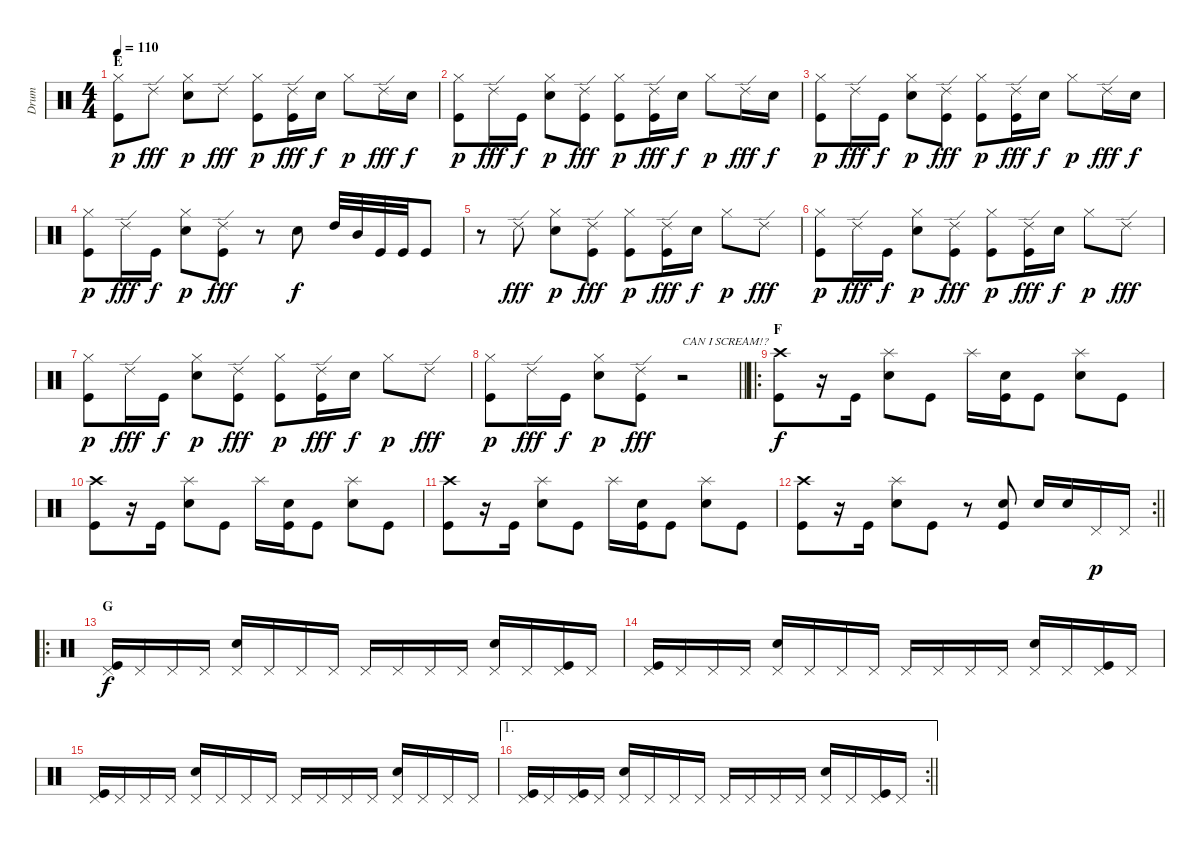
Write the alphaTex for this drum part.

\track ("Drum" "Drum") {instrument percussion}
\staff {score}
\articulation defaults
\ts (4 4)
\section ("" "E")
\tempo 110
\clef neutral
\ks c
("Hi-Hat (closed)" "Kick (hit)").8{dy p} "Ride (edge) 2".8{dy fff} ("Hi-Hat (closed)" "Snare (hit) 2").8{dy p} "Ride (edge) 2".8{dy fff} ("Hi-Hat (closed)" "Kick (hit)").8{dy p} ("Ride (edge) 2" "Kick (hit)").16{dy fff} "Snare (hit) 2".16{dy f} "Hi-Hat (closed)".8{dy p} "Ride (edge) 2".16{dy fff} "Snare (hit) 2".16{dy f} |
("Hi-Hat (closed)" "Kick (hit)").8{dy p} "Ride (edge) 2".16{dy fff} "Kick (hit)".16{dy f} ("Hi-Hat (closed)" "Snare (hit) 2").8{dy p} ("Ride (edge) 2" "Kick (hit)").8{dy fff} ("Hi-Hat (closed)" "Kick (hit)").8{dy p} ("Ride (edge) 2" "Kick (hit)").16{dy fff} "Snare (hit) 2".16{dy f} "Hi-Hat (closed)".8{dy p} "Ride (edge) 2".16{dy fff} "Snare (hit) 2".16{dy f} |
("Hi-Hat (closed)" "Kick (hit)").8{dy p} "Ride (edge) 2".16{dy fff} "Kick (hit)".16{dy f} ("Hi-Hat (closed)" "Snare (hit) 2").8{dy p} ("Ride (edge) 2" "Kick (hit)").8{dy fff} ("Hi-Hat (closed)" "Kick (hit)").8{dy p} ("Ride (edge) 2" "Kick (hit)").16{dy fff} "Snare (hit) 2".16{dy f} "Hi-Hat (closed)".8{dy p} "Ride (edge) 2".16{dy fff} "Snare (hit) 2".16{dy f} |
("Hi-Hat (closed)" "Kick (hit)").8{dy p} "Ride (edge) 2".16{dy fff} "Kick (hit)".16{dy f} ("Hi-Hat (closed)" "Snare (hit) 2").8{dy p} ("Ride (edge) 2" "Kick (hit)").8{dy fff} r.8 "Snare (hit) 2".8{dy f} "High Tom (hit)".32 "Mid Tom (hit)".32 "Kick (hit)".32 "Kick (hit)".32 "Kick (hit)".8 |
r.8 "Ride (edge) 2".8{dy fff} ("Hi-Hat (closed)" "Snare (hit) 2").8{dy p} ("Ride (edge) 2" "Kick (hit)").8{dy fff} ("Hi-Hat (closed)" "Kick (hit)").8{dy p} ("Ride (edge) 2" "Kick (hit)").16{dy fff} "Snare (hit) 2".16{dy f} "Hi-Hat (closed)".8{dy p} "Ride (edge) 2".8{dy fff} |
("Hi-Hat (closed)" "Kick (hit)").8{dy p} "Ride (edge) 2".16{dy fff} "Kick (hit)".16{dy f} ("Hi-Hat (closed)" "Snare (hit) 2").8{dy p} ("Ride (edge) 2" "Kick (hit)").8{dy fff} ("Hi-Hat (closed)" "Kick (hit)").8{dy p} ("Ride (edge) 2" "Kick (hit)").16{dy fff} "Snare (hit) 2".16{dy f} "Hi-Hat (closed)".8{dy p} "Ride (edge) 2".8{dy fff} |
("Hi-Hat (closed)" "Kick (hit)").8{dy p} "Ride (edge) 2".16{dy fff} "Kick (hit)".16{dy f} ("Hi-Hat (closed)" "Snare (hit) 2").8{dy p} ("Ride (edge) 2" "Kick (hit)").8{dy fff} ("Hi-Hat (closed)" "Kick (hit)").8{dy p} ("Ride (edge) 2" "Kick (hit)").16{dy fff} "Snare (hit) 2".16{dy f} "Hi-Hat (closed)".8{dy p} "Ride (edge) 2".8{dy fff} |
\barLineRight lightlight
("Hi-Hat (closed)" "Kick (hit)").8{dy p} "Ride (edge) 2".16{dy fff} "Kick (hit)".16{dy f} ("Hi-Hat (closed)" "Snare (hit) 2").8{dy p} ("Ride (edge) 2" "Kick (hit)").8{dy fff} r.2{txt "CAN I SCREAM!?"} |
\ro
\section ("" "F")
("Crash high (hit)" "Kick (hit)").8{dy f} r.16 "Kick (hit)".16 ("Splash (hit)" "Snare (hit) 2").8 "Kick (hit)".8 "Splash (hit)".16 ("Snare (hit) 2" "Kick (hit)").16 "Kick (hit)".8 ("Splash (hit)" "Snare (hit) 2").8 "Kick (hit)".8 |
("Crash high (hit)" "Kick (hit)").8 r.16 "Kick (hit)".16 ("Splash (hit)" "Snare (hit) 2").8 "Kick (hit)".8 "Splash (hit)".16 ("Snare (hit) 2" "Kick (hit)").16 "Kick (hit)".8 ("Splash (hit)" "Snare (hit) 2").8 "Kick (hit)".8 |
("Crash high (hit)" "Kick (hit)").8 r.16 "Kick (hit)".16 ("Splash (hit)" "Snare (hit) 2").8 "Kick (hit)".8 "Splash (hit)".16 ("Snare (hit) 2" "Kick (hit)").16 "Kick (hit)".8 ("Splash (hit)" "Snare (hit) 2").8 "Kick (hit)".8 |
\rc 2
\barLineRight lightlight
("Crash high (hit)" "Kick (hit)").8 r.16 "Kick (hit)".16 ("Splash (hit)" "Snare (hit) 2").8 "Kick (hit)".8 r.8 ("Snare (hit) 2" "Kick (hit)").8 "Snare (hit) 2".16 "Snare (hit) 2".16 "Pedal Hi-Hat (hit)".16{dy p} "Pedal Hi-Hat (hit)".16 |
\ro
\section ("" "G")
("Pedal Hi-Hat (hit)" "Kick (hit)").16{dy f} "Pedal Hi-Hat (hit)".16 "Pedal Hi-Hat (hit)".16 "Pedal Hi-Hat (hit)".16 ("Pedal Hi-Hat (hit)" "Snare (hit) 2").16 "Pedal Hi-Hat (hit)".16 "Pedal Hi-Hat (hit)".16 "Pedal Hi-Hat (hit)".16 "Pedal Hi-Hat (hit)".16 "Pedal Hi-Hat (hit)".16 "Pedal Hi-Hat (hit)".16 "Pedal Hi-Hat (hit)".16 ("Pedal Hi-Hat (hit)" "Snare (hit) 2").16 "Pedal Hi-Hat (hit)".16 ("Pedal Hi-Hat (hit)" "Kick (hit)").16 "Pedal Hi-Hat (hit)".16 |
("Pedal Hi-Hat (hit)" "Kick (hit)").16 "Pedal Hi-Hat (hit)".16 "Pedal Hi-Hat (hit)".16 "Pedal Hi-Hat (hit)".16 ("Pedal Hi-Hat (hit)" "Snare (hit) 2").16 "Pedal Hi-Hat (hit)".16 "Pedal Hi-Hat (hit)".16 "Pedal Hi-Hat (hit)".16 "Pedal Hi-Hat (hit)".16 "Pedal Hi-Hat (hit)".16 "Pedal Hi-Hat (hit)".16 "Pedal Hi-Hat (hit)".16 ("Pedal Hi-Hat (hit)" "Snare (hit) 2").16 "Pedal Hi-Hat (hit)".16 ("Pedal Hi-Hat (hit)" "Kick (hit)").16 "Pedal Hi-Hat (hit)".16 |
("Pedal Hi-Hat (hit)" "Kick (hit)").16 "Pedal Hi-Hat (hit)".16 "Pedal Hi-Hat (hit)".16 "Pedal Hi-Hat (hit)".16 ("Pedal Hi-Hat (hit)" "Snare (hit) 2").16 "Pedal Hi-Hat (hit)".16 "Pedal Hi-Hat (hit)".16 "Pedal Hi-Hat (hit)".16 "Pedal Hi-Hat (hit)".16 "Pedal Hi-Hat (hit)".16 "Pedal Hi-Hat (hit)".16 "Pedal Hi-Hat (hit)".16 ("Pedal Hi-Hat (hit)" "Snare (hit) 2").16 "Pedal Hi-Hat (hit)".16 "Pedal Hi-Hat (hit)".16 "Pedal Hi-Hat (hit)".16 |
\ae 1
\rc 2
\barLineRight lightlight
("Pedal Hi-Hat (hit)" "Kick (hit)").16 "Pedal Hi-Hat (hit)".16 ("Pedal Hi-Hat (hit)" "Kick (hit)").16 "Pedal Hi-Hat (hit)".16 ("Pedal Hi-Hat (hit)" "Snare (hit) 2").16 "Pedal Hi-Hat (hit)".16 "Pedal Hi-Hat (hit)".16 "Pedal Hi-Hat (hit)".16 "Pedal Hi-Hat (hit)".16 "Pedal Hi-Hat (hit)".16 "Pedal Hi-Hat (hit)".16 "Pedal Hi-Hat (hit)".16 ("Pedal Hi-Hat (hit)" "Snare (hit) 2").16 "Pedal Hi-Hat (hit)".16 ("Pedal Hi-Hat (hit)" "Kick (hit)").16 "Pedal Hi-Hat (hit)".16
